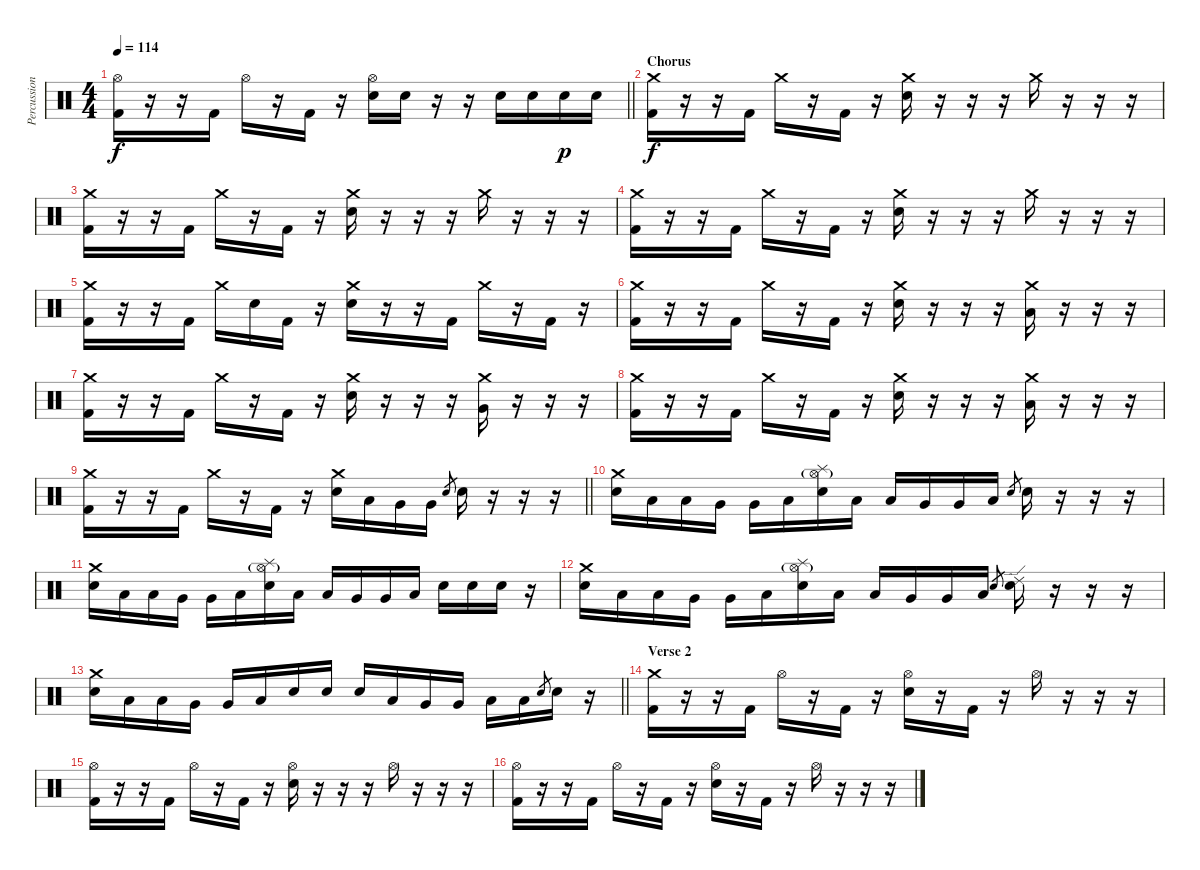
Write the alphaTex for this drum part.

\track ("Percussion" "Percussion") {instrument percussion}
\staff {score}
\articulation defaults
\ts (4 4)
\tempo 114
\clef neutral
\barLineRight lightlight
\ks c
("Hi-Hat (open)" "Kick (hit) 2").16{dy f} r.16 r.16 "Kick (hit) 2".16 "Hi-Hat (open)".16 r.16 "Kick (hit) 2".16 r.16 ("Hi-Hat (open)" "Electric Snare (hit)").16 "Electric Snare (hit)".16 r.16 r.16 "Electric Snare (hit)".16 "Electric Snare (hit)".16 "Electric Snare (hit)".16{dy p} "Electric Snare (hit)".16 |
\section ("" "Chorus")
("Crash medium (hit)" "Kick (hit) 2").16{dy f} r.16 r.16 "Kick (hit) 2".16 "Crash medium (hit)".16 r.16 "Kick (hit) 2".16 r.16 ("Crash medium (hit)" "Electric Snare (hit)").16 r.16 r.16 r.16 "Crash medium (hit)".16 r.16 r.16 r.16 |
("Crash medium (hit)" "Kick (hit) 2").16 r.16 r.16 "Kick (hit) 2".16 "Crash medium (hit)".16 r.16 "Kick (hit) 2".16 r.16 ("Crash medium (hit)" "Electric Snare (hit)").16 r.16 r.16 r.16 "Crash medium (hit)".16 r.16 r.16 r.16 |
("Crash medium (hit)" "Kick (hit) 2").16 r.16 r.16 "Kick (hit) 2".16 "Crash medium (hit)".16 r.16 "Kick (hit) 2".16 r.16 ("Crash medium (hit)" "Electric Snare (hit)").16 r.16 r.16 r.16 "Crash medium (hit)".16 r.16 r.16 r.16 |
("Crash medium (hit)" "Kick (hit) 2").16 r.16 r.16 "Kick (hit) 2".16 "Crash medium (hit)".16 "Electric Snare (hit)".16 "Kick (hit) 2".16 r.16 ("Crash medium (hit)" "Electric Snare (hit)").16 r.16 r.16 "Kick (hit) 2".16 "Crash medium (hit)".16 r.16 "Kick (hit) 2".16 r.16 |
("Crash medium (hit)" "Kick (hit) 2").16 r.16 r.16 "Kick (hit) 2".16 "Crash medium (hit)".16 r.16 "Kick (hit) 2".16 r.16 ("Crash medium (hit)" "Electric Snare (hit)").16 r.16 r.16 r.16 ("Low Tom (hit)" "Crash medium (hit)").16 r.16 r.16 r.16 |
("Crash medium (hit)" "Kick (hit) 2").16 r.16 r.16 "Kick (hit) 2".16 "Crash medium (hit)".16 r.16 "Kick (hit) 2".16 r.16 ("Crash medium (hit)" "Electric Snare (hit)").16 r.16 r.16 r.16 ("Very Low Tom (hit)" "Crash medium (hit)").16 r.16 r.16 r.16 |
("Crash medium (hit)" "Kick (hit) 2").16 r.16 r.16 "Kick (hit) 2".16 "Crash medium (hit)".16 r.16 "Kick (hit) 2".16 r.16 ("Crash medium (hit)" "Electric Snare (hit)").16 r.16 r.16 r.16 ("Low Floor Tom (hit)" "Crash medium (hit)").16 r.16 r.16 r.16 |
\barLineRight lightlight
("Crash medium (hit)" "Kick (hit) 2").16 r.16 r.16 "Kick (hit) 2".16 "Crash medium (hit)".16 r.16 "Kick (hit) 2".16 r.16 ("Crash medium (hit)" "Electric Snare (hit)").16 "Low Tom (hit)".16 "Very Low Tom (hit)".16 "Very Low Tom (hit)".16 "Electric Snare (hit)".8{gr} "Electric Snare (hit)".16 r.16 r.16 r.16 |
\section ("" "")
("Crash medium (hit)" "Electric Snare (hit)").16 "Low Tom (hit)".16 "Low Tom (hit)".16 "Very Low Tom (hit)".16 "Very Low Tom (hit)".16 "Low Floor Tom (hit)".16 ("Hi-Hat (open)"{g} "Splash (hit)" "Electric Snare (hit)").16 "Low Tom (hit)".16 "Low Tom (hit)".16 "Very Low Tom (hit)".16 "Very Low Tom (hit)".16 "Low Floor Tom (hit)".16 "Electric Snare (hit)".8{gr} "Electric Snare (hit)".16 r.16 r.16 r.16 |
("Crash medium (hit)" "Electric Snare (hit)").16 "Low Tom (hit)".16 "Low Tom (hit)".16 "Very Low Tom (hit)".16 "Very Low Tom (hit)".16 "Low Floor Tom (hit)".16 ("Hi-Hat (open)"{g} "Splash (hit)" "Electric Snare (hit)").16 "Low Tom (hit)".16 "Low Tom (hit)".16 "Very Low Tom (hit)".16 "Very Low Tom (hit)".16 "Low Floor Tom (hit)".16 "Electric Snare (hit)".16 "Electric Snare (hit)".16 "Electric Snare (hit)".16 r.16 |
("Crash medium (hit)" "Electric Snare (hit)").16 "Low Tom (hit)".16 "Low Tom (hit)".16 "Very Low Tom (hit)".16 "Very Low Tom (hit)".16 "Low Floor Tom (hit)".16 ("Hi-Hat (open)"{g} "Splash (hit)" "Electric Snare (hit)").16 "Low Tom (hit)".16 "Low Tom (hit)".16 "Very Low Tom (hit)".16 "Very Low Tom (hit)".16 "Low Floor Tom (hit)".16 "Electric Snare (hit)".8{gr} ("Ride (edge) 2" "Electric Snare (hit)").16 r.16 r.16 r.16 |
\barLineRight lightlight
("Crash medium (hit)" "Electric Snare (hit)").16 "Low Tom (hit)".16 "Low Tom (hit)".16 "Very Low Tom (hit)".16 "Very Low Tom (hit)".16 "Low Floor Tom (hit)".16 "Electric Snare (hit)".16 "Electric Snare (hit)".16 "Electric Snare (hit)".16 "Low Tom (hit)".16 "Very Low Tom (hit)".16 "Very Low Tom (hit)".16 "Low Floor Tom (hit)".16 "Low Floor Tom (hit)".16 "Electric Snare (hit)".8{gr} "Electric Snare (hit)".16 r.16 |
\section ("" "Verse 2")
("Crash medium (hit)" "Kick (hit) 2").16 r.16 r.16 "Kick (hit) 2".16 "Hi-Hat (open)".16 r.16 "Kick (hit) 2".16 r.16 ("Hi-Hat (open)" "Electric Snare (hit)").16 r.16 "Kick (hit) 2".16 r.16 "Hi-Hat (open)".16 r.16 r.16 r.16 |
("Hi-Hat (open)" "Kick (hit) 2").16 r.16 r.16 "Kick (hit) 2".16 "Hi-Hat (open)".16 r.16 "Kick (hit) 2".16 r.16 ("Hi-Hat (open)" "Electric Snare (hit)").16 r.16 r.16 r.16 "Hi-Hat (open)".16 r.16 r.16 r.16 |
("Hi-Hat (open)" "Kick (hit) 2").16 r.16 r.16 "Kick (hit) 2".16 "Hi-Hat (open)".16 r.16 "Kick (hit) 2".16 r.16 ("Hi-Hat (open)" "Electric Snare (hit)").16 r.16 "Kick (hit) 2".16 r.16 "Hi-Hat (open)".16 r.16 r.16 r.16
